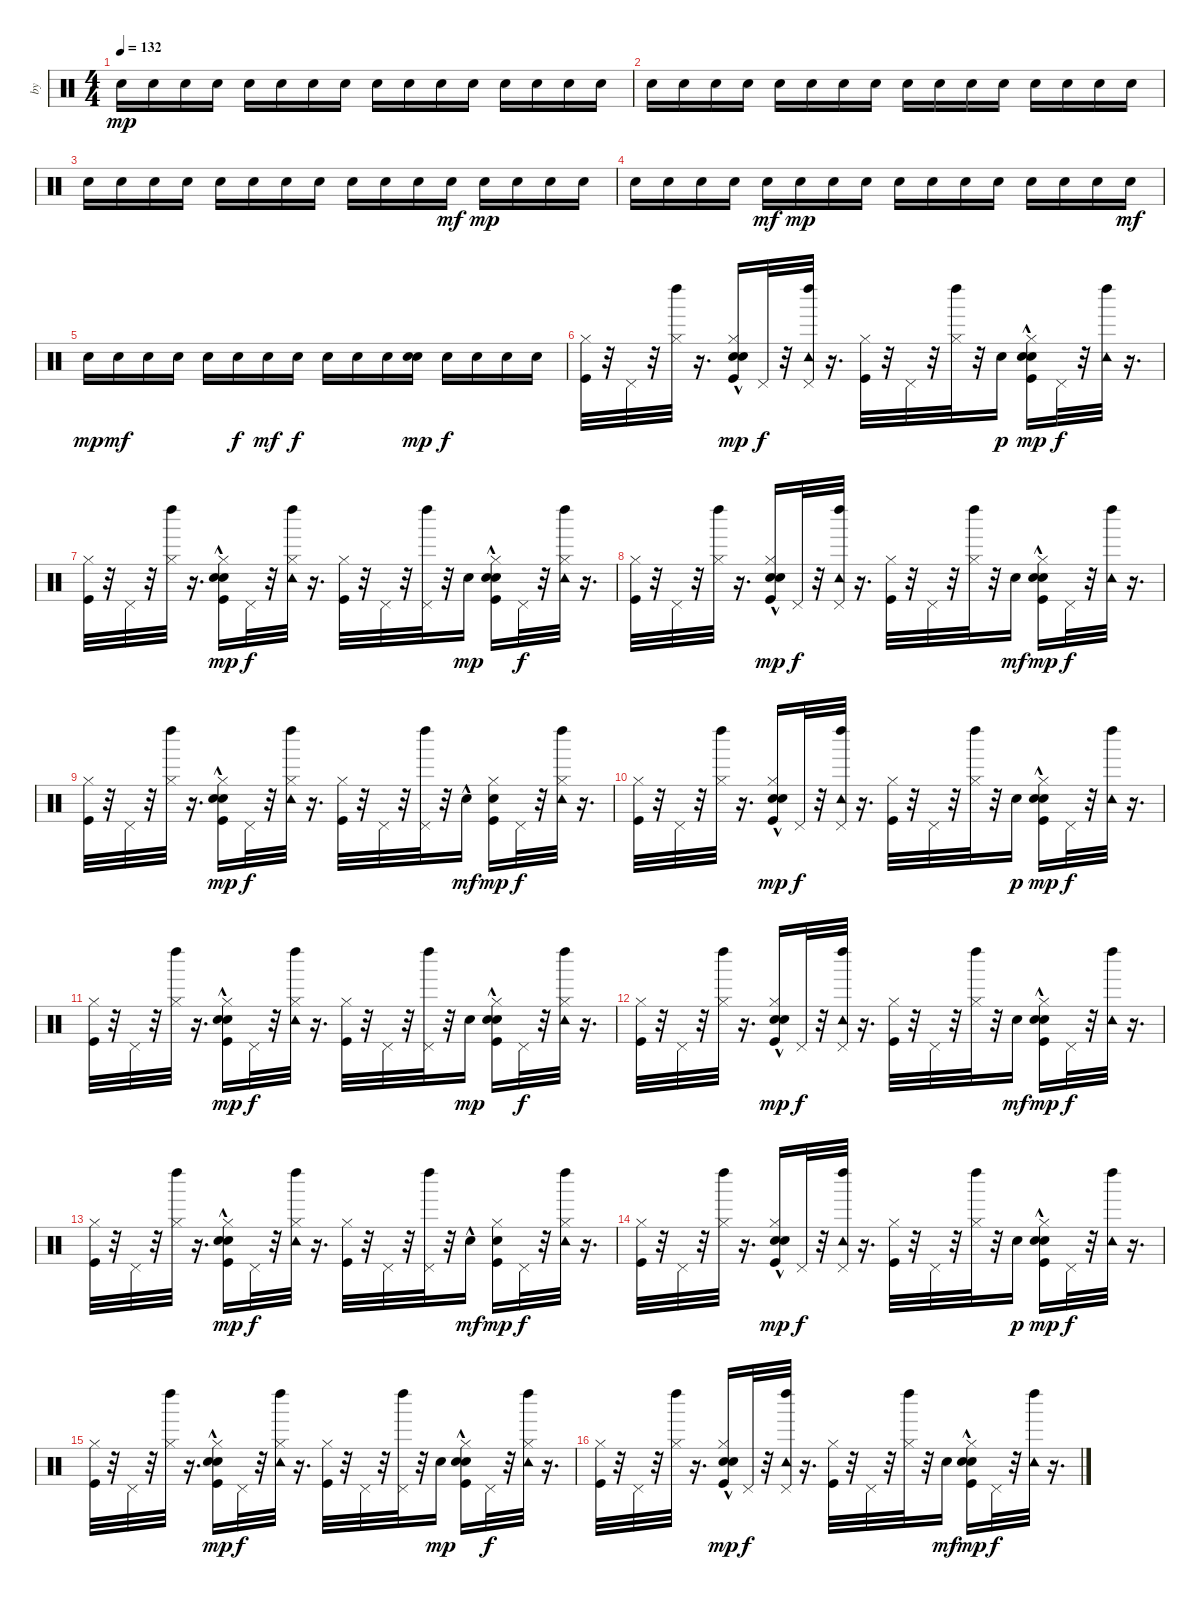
\track ("by" "by") {instrument percussion}
\staff {score}
\articulation defaults
\ts (4 4)
\tempo 132
\clef neutral
\ks c "Snare (hit) 2".16{dy mp} "Snare (hit) 2".16 "Snare (hit) 2".16 "Snare (hit) 2".16 "Snare (hit) 2".16 "Snare (hit) 2".16 "Snare (hit) 2".16 "Snare (hit) 2".16 "Snare (hit) 2".16 "Snare (hit) 2".16 "Snare (hit) 2".16 "Snare (hit) 2".16 "Snare (hit) 2".16 "Snare (hit) 2".16 "Snare (hit) 2".16 "Snare (hit) 2".16
|
"Snare (hit) 2".16 "Snare (hit) 2".16 "Snare (hit) 2".16 "Snare (hit) 2".16 "Snare (hit) 2".16 "Snare (hit) 2".16 "Snare (hit) 2".16 "Snare (hit) 2".16 "Snare (hit) 2".16 "Snare (hit) 2".16 "Snare (hit) 2".16 "Snare (hit) 2".16 "Snare (hit) 2".16 "Snare (hit) 2".16 "Snare (hit) 2".16 "Snare (hit) 2".16 |
"Snare (hit) 2".16 "Snare (hit) 2".16 "Snare (hit) 2".16 "Snare (hit) 2".16 "Snare (hit) 2".16 "Snare (hit) 2".16 "Snare (hit) 2".16 "Snare (hit) 2".16 "Snare (hit) 2".16 "Snare (hit) 2".16 "Snare (hit) 2".16 "Snare (hit) 2".16{dy mf} "Snare (hit) 2".16{dy mp} "Snare (hit) 2".16 "Snare (hit) 2".16 "Snare (hit) 2".16 |
"Snare (hit) 2".16 "Snare (hit) 2".16 "Snare (hit) 2".16 "Snare (hit) 2".16 "Snare (hit) 2".16{dy mf} "Snare (hit) 2".16{dy mp} "Snare (hit) 2".16 "Snare (hit) 2".16 "Snare (hit) 2".16 "Snare (hit) 2".16 "Snare (hit) 2".16 "Snare (hit) 2".16 "Snare (hit) 2".16 "Snare (hit) 2".16 "Snare (hit) 2".16 "Snare (hit) 2".16{dy mf} |
"Snare (hit) 2".16{dy mp} "Snare (hit) 2".16{dy mf} "Snare (hit) 2".16 "Snare (hit) 2".16 "Snare (hit) 2".16 "Snare (hit) 2".16{dy f} "Snare (hit) 2".16{dy mf} "Snare (hit) 2".16{dy f} "Snare (hit) 2".16 "Snare (hit) 2".16 "Snare (hit) 2".16 ("Snare (hit) 2" "Electric Snare (hit)").16{dy mp} "Snare (hit) 2".16{dy f} "Snare (hit) 2".16 "Snare (hit) 2".16 "Snare (hit) 2".16 |
("Hi-Hat (closed)" "Kick (hit)").32{volume 11} r.32 "Pedal Hi-Hat (hit)".32 r.32 ("Left Maraca (hit)" "Hi-Hat (closed)").32 r.16{d} ("Kick (hit)" "Hi-Hat (closed)" "Hand Clap (hit)" "Electric Snare (hit)"{hac}).16{dy mp} "Pedal Hi-Hat (hit)".32{dy f} r.32 ("Tambourine (hit)" "Left Maraca (hit)" "Pedal Hi-Hat (hit)").32 r.16{d} ("Hi-Hat (closed)" "Kick (hit)").32 r.32 "Pedal Hi-Hat (hit)".32 r.32 ("Hi-Hat (closed)" "Left Maraca (hit)").32 r.32 "Hand Clap (hit)".16{dy p} ("Kick (hit)" "Hi-Hat (closed)" "Hand Clap (hit)" "Electric Snare (hit)"{hac}).16{dy mp} "Pedal Hi-Hat (hit)".32{dy f} r.32 ("Tambourine (hit)" "Left Maraca (hit)").32 r.16{d} |
("Hi-Hat (closed)" "Kick (hit)").32 r.32 "Pedal Hi-Hat (hit)".32 r.32 ("Left Maraca (hit)" "Hi-Hat (closed)").32 r.16{d} ("Hi-Hat (closed)" "Kick (hit)" "Hand Clap (hit)" "Electric Snare (hit)"{hac}).16{dy mp} "Pedal Hi-Hat (hit)".32{dy f} r.32 ("Hi-Hat (closed)" "Tambourine (hit)" "Left Maraca (hit)").32 r.16{d} ("Hi-Hat (closed)" "Kick (hit)").32 r.32 "Pedal Hi-Hat (hit)".32 r.32 ("Left Maraca (hit)" "Pedal Hi-Hat (hit)").32 r.32 "Hand Clap (hit)".16{dy mp} ("Kick (hit)" "Hi-Hat (closed)" "Hand Clap (hit)" "Electric Snare (hit)"{hac}).16 "Pedal Hi-Hat (hit)".32{dy f} r.32 ("Hi-Hat (closed)" "Left Maraca (hit)" "Tambourine (hit)").32 r.16{d} |
("Hi-Hat (closed)" "Kick (hit)").32{volume 11} r.32 "Pedal Hi-Hat (hit)".32 r.32 ("Left Maraca (hit)" "Hi-Hat (closed)").32 r.16{d} ("Hand Clap (hit)" "Kick (hit)" "Hi-Hat (closed)" "Electric Snare (hit)"{hac}).16{dy mp} "Pedal Hi-Hat (hit)".32{dy f} r.32 ("Tambourine (hit)" "Left Maraca (hit)" "Pedal Hi-Hat (hit)").32 r.16{d} ("Hi-Hat (closed)" "Kick (hit)").32 r.32 "Pedal Hi-Hat (hit)".32 r.32 ("Hi-Hat (closed)" "Left Maraca (hit)").32 r.32 "Hand Clap (hit)".16{dy mf} ("Hand Clap (hit)" "Kick (hit)" "Hi-Hat (closed)" "Electric Snare (hit)"{hac}).16{dy mp} "Pedal Hi-Hat (hit)".32{dy f} r.32 ("Tambourine (hit)" "Left Maraca (hit)").32 r.16{d} |
("Hi-Hat (closed)" "Kick (hit)").32 r.32 "Pedal Hi-Hat (hit)".32 r.32 ("Left Maraca (hit)" "Hi-Hat (closed)").32 r.16{d} ("Hand Clap (hit)"{hac} "Hi-Hat (closed)" "Kick (hit)" "Electric Snare (hit)"{hac}).16{dy mp} "Pedal Hi-Hat (hit)".32{dy f} r.32 ("Hi-Hat (closed)" "Tambourine (hit)" "Left Maraca (hit)").32 r.16{d} ("Hi-Hat (closed)" "Kick (hit)").32 r.32 "Pedal Hi-Hat (hit)".32 r.32 ("Left Maraca (hit)" "Pedal Hi-Hat (hit)").32 r.32 "Hand Clap (hit)"{hac}.16{dy mf} ("Kick (hit)" "Hi-Hat (closed)" "Electric Snare (hit)").16{dy mp} "Pedal Hi-Hat (hit)".32{dy f} r.32 ("Hi-Hat (closed)" "Left Maraca (hit)" "Tambourine (hit)").32 r.16{d} |
("Hi-Hat (closed)" "Kick (hit)").32{volume 11} r.32 "Pedal Hi-Hat (hit)".32 r.32 ("Left Maraca (hit)" "Hi-Hat (closed)").32 r.16{d} ("Kick (hit)" "Hi-Hat (closed)" "Hand Clap (hit)" "Electric Snare (hit)"{hac}).16{dy mp} "Pedal Hi-Hat (hit)".32{dy f} r.32 ("Tambourine (hit)" "Left Maraca (hit)" "Pedal Hi-Hat (hit)").32 r.16{d} ("Hi-Hat (closed)" "Kick (hit)").32 r.32 "Pedal Hi-Hat (hit)".32 r.32 ("Hi-Hat (closed)" "Left Maraca (hit)").32 r.32 "Hand Clap (hit)".16{dy p} ("Kick (hit)" "Hi-Hat (closed)" "Hand Clap (hit)" "Electric Snare (hit)"{hac}).16{dy mp} "Pedal Hi-Hat (hit)".32{dy f} r.32 ("Tambourine (hit)" "Left Maraca (hit)").32 r.16{d} |
("Hi-Hat (closed)" "Kick (hit)").32 r.32 "Pedal Hi-Hat (hit)".32 r.32 ("Left Maraca (hit)" "Hi-Hat (closed)").32 r.16{d} ("Hi-Hat (closed)" "Kick (hit)" "Hand Clap (hit)" "Electric Snare (hit)"{hac}).16{dy mp} "Pedal Hi-Hat (hit)".32{dy f} r.32 ("Hi-Hat (closed)" "Tambourine (hit)" "Left Maraca (hit)").32 r.16{d} ("Hi-Hat (closed)" "Kick (hit)").32 r.32 "Pedal Hi-Hat (hit)".32 r.32 ("Left Maraca (hit)" "Pedal Hi-Hat (hit)").32 r.32 "Hand Clap (hit)".16{dy mp} ("Kick (hit)" "Hi-Hat (closed)" "Hand Clap (hit)" "Electric Snare (hit)"{hac}).16 "Pedal Hi-Hat (hit)".32{dy f} r.32 ("Hi-Hat (closed)" "Left Maraca (hit)" "Tambourine (hit)").32 r.16{d} |
("Hi-Hat (closed)" "Kick (hit)").32{volume 11} r.32 "Pedal Hi-Hat (hit)".32 r.32 ("Left Maraca (hit)" "Hi-Hat (closed)").32 r.16{d} ("Hand Clap (hit)" "Kick (hit)" "Hi-Hat (closed)" "Electric Snare (hit)"{hac}).16{dy mp} "Pedal Hi-Hat (hit)".32{dy f} r.32 ("Tambourine (hit)" "Left Maraca (hit)" "Pedal Hi-Hat (hit)").32 r.16{d} ("Hi-Hat (closed)" "Kick (hit)").32 r.32 "Pedal Hi-Hat (hit)".32 r.32 ("Hi-Hat (closed)" "Left Maraca (hit)").32 r.32 "Hand Clap (hit)".16{dy mf} ("Hand Clap (hit)" "Kick (hit)" "Hi-Hat (closed)" "Electric Snare (hit)"{hac}).16{dy mp} "Pedal Hi-Hat (hit)".32{dy f} r.32 ("Tambourine (hit)" "Left Maraca (hit)").32 r.16{d} |
("Hi-Hat (closed)" "Kick (hit)").32 r.32 "Pedal Hi-Hat (hit)".32 r.32 ("Left Maraca (hit)" "Hi-Hat (closed)").32 r.16{d} ("Hand Clap (hit)"{hac} "Hi-Hat (closed)" "Kick (hit)" "Electric Snare (hit)"{hac}).16{dy mp} "Pedal Hi-Hat (hit)".32{dy f} r.32 ("Hi-Hat (closed)" "Tambourine (hit)" "Left Maraca (hit)").32 r.16{d} ("Hi-Hat (closed)" "Kick (hit)").32 r.32 "Pedal Hi-Hat (hit)".32 r.32 ("Left Maraca (hit)" "Pedal Hi-Hat (hit)").32 r.32 "Hand Clap (hit)"{hac}.16{dy mf} ("Kick (hit)" "Hi-Hat (closed)" "Electric Snare (hit)").16{dy mp} "Pedal Hi-Hat (hit)".32{dy f} r.32 ("Hi-Hat (closed)" "Left Maraca (hit)" "Tambourine (hit)").32 r.16{d} |
("Hi-Hat (closed)" "Kick (hit)").32{volume 11} r.32 "Pedal Hi-Hat (hit)".32 r.32 ("Left Maraca (hit)" "Hi-Hat (closed)").32 r.16{d} ("Kick (hit)" "Hi-Hat (closed)" "Hand Clap (hit)" "Electric Snare (hit)"{hac}).16{dy mp} "Pedal Hi-Hat (hit)".32{dy f} r.32 ("Tambourine (hit)" "Left Maraca (hit)" "Pedal Hi-Hat (hit)").32 r.16{d} ("Hi-Hat (closed)" "Kick (hit)").32 r.32 "Pedal Hi-Hat (hit)".32 r.32 ("Hi-Hat (closed)" "Left Maraca (hit)").32 r.32 "Hand Clap (hit)".16{dy p} ("Kick (hit)" "Hi-Hat (closed)" "Hand Clap (hit)" "Electric Snare (hit)"{hac}).16{dy mp} "Pedal Hi-Hat (hit)".32{dy f} r.32 ("Tambourine (hit)" "Left Maraca (hit)").32 r.16{d} |
("Hi-Hat (closed)" "Kick (hit)").32 r.32 "Pedal Hi-Hat (hit)".32 r.32 ("Left Maraca (hit)" "Hi-Hat (closed)").32 r.16{d} ("Hi-Hat (closed)" "Kick (hit)" "Hand Clap (hit)" "Electric Snare (hit)"{hac}).16{dy mp} "Pedal Hi-Hat (hit)".32{dy f} r.32 ("Hi-Hat (closed)" "Tambourine (hit)" "Left Maraca (hit)").32 r.16{d} ("Hi-Hat (closed)" "Kick (hit)").32 r.32 "Pedal Hi-Hat (hit)".32 r.32 ("Left Maraca (hit)" "Pedal Hi-Hat (hit)").32 r.32 "Hand Clap (hit)".16{dy mp} ("Kick (hit)" "Hi-Hat (closed)" "Hand Clap (hit)" "Electric Snare (hit)"{hac}).16 "Pedal Hi-Hat (hit)".32{dy f} r.32 ("Hi-Hat (closed)" "Left Maraca (hit)" "Tambourine (hit)").32 r.16{d} |
("Hi-Hat (closed)" "Kick (hit)").32{volume 11} r.32 "Pedal Hi-Hat (hit)".32 r.32 ("Left Maraca (hit)" "Hi-Hat (closed)").32 r.16{d} ("Hand Clap (hit)" "Kick (hit)" "Hi-Hat (closed)" "Electric Snare (hit)"{hac}).16{dy mp} "Pedal Hi-Hat (hit)".32{dy f} r.32 ("Tambourine (hit)" "Left Maraca (hit)" "Pedal Hi-Hat (hit)").32 r.16{d} ("Hi-Hat (closed)" "Kick (hit)").32 r.32 "Pedal Hi-Hat (hit)".32 r.32 ("Hi-Hat (closed)" "Left Maraca (hit)").32 r.32 "Hand Clap (hit)".16{dy mf} ("Hand Clap (hit)" "Kick (hit)" "Hi-Hat (closed)" "Electric Snare (hit)"{hac}).16{dy mp} "Pedal Hi-Hat (hit)".32{dy f} r.32 ("Tambourine (hit)" "Left Maraca (hit)").32 r.16{d}
